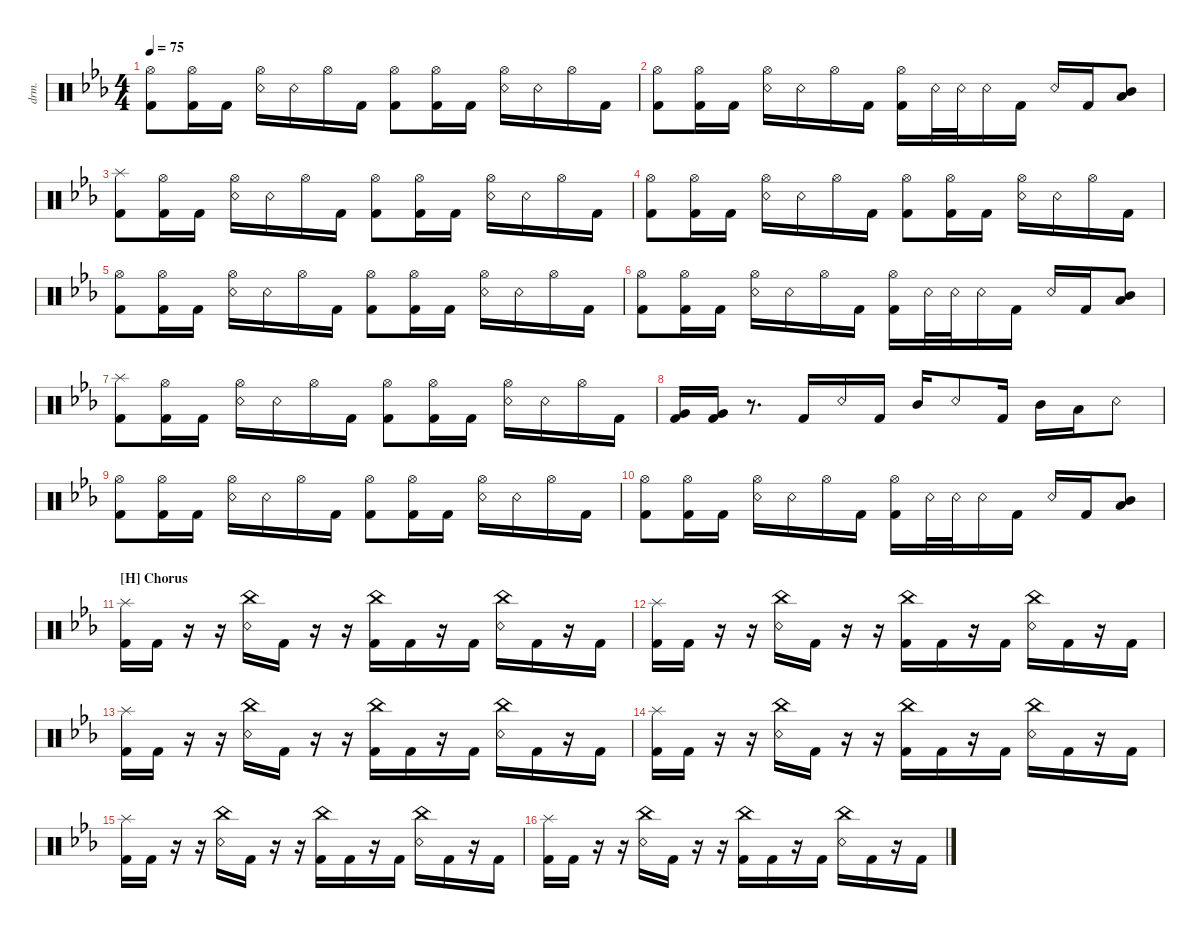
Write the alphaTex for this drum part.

\defaultSystemsLayout 4
\hideDynamics
\bracketExtendMode nobrackets
\otherSystemsTrackNameOrientation horizontal
\track ("Drumkit" "drm.") {instrument percussion}
\staff {score}
\articulation defaults
\ts (4 4)
\tempo 75
\clef neutral
\ks cminor
("Kick (hit) 2"{acc forcenatural} "Hi-Hat (open)"{acc forcenatural}).8{dy ff beam Down} ("Kick (hit) 2"{acc forcenatural} "Hi-Hat (open)"{acc forcenatural}).16{beam Down} "Kick (hit) 2"{acc forcenatural}.16{beam Down} ("Snare (rim shot)"{acc forcenatural} "Hi-Hat (open)"{acc forcenatural}).16{beam Down} "Snare (rim shot)"{acc forcenatural}.16{beam Down} "Hi-Hat (open)"{acc forcenatural}.16{beam Down} "Kick (hit) 2"{acc forcenatural}.16{beam Down} ("Kick (hit) 2"{acc forcenatural} "Hi-Hat (open)"{acc forcenatural}).8{beam Down} ("Kick (hit) 2"{acc forcenatural} "Hi-Hat (open)"{acc forcenatural}).16{beam Down} "Kick (hit) 2"{acc forcenatural}.16{beam Down} ("Snare (rim shot)"{acc forcenatural} "Hi-Hat (open)"{acc forcenatural}).16{beam Down} "Snare (rim shot)"{acc forcenatural}.16{beam Down} "Hi-Hat (open)"{acc forcenatural}.16{beam Down} "Kick (hit) 2"{acc forcenatural}.16{beam Down} |
("Kick (hit) 2"{acc forcenatural} "Hi-Hat (open)"{acc forcenatural}).8{beam Down} ("Kick (hit) 2"{acc forcenatural} "Hi-Hat (open)"{acc forcenatural}).16{beam Down} "Kick (hit) 2"{acc forcenatural}.16{beam Down} ("Snare (rim shot)"{acc forcenatural} "Hi-Hat (open)"{acc forcenatural}).16{beam Down} "Snare (rim shot)"{acc forcenatural}.16{beam Down} "Hi-Hat (open)"{acc forcenatural}.16{beam Down} "Kick (hit) 2"{acc forcenatural}.16{beam Down} ("Kick (hit) 2"{acc forcenatural} "Hi-Hat (open)"{acc forcenatural}).16{beam Down} "Snare (rim shot)"{acc forcenatural}.32{beam Down} "Snare (rim shot)"{acc forcenatural}.32{beam Down} "Snare (rim shot)"{acc forcenatural}.16{beam Down} "Kick (hit) 2"{acc forcenatural}.16{beam Down} "Snare (rim shot)"{acc forcenatural}.16{beam Up} "Kick (hit) 2"{acc forcenatural}.16{beam Up} ("Mid Tom (hit)"{acc forcenatural} "Low Tom (hit)"{acc forcenatural}).8{beam Up} |
("Splash (hit)"{acc forcenatural} "Kick (hit) 2"{acc forcenatural}).8{beam Down} ("Kick (hit) 2"{acc forcenatural} "Hi-Hat (open)"{acc forcenatural}).16{beam Down} "Kick (hit) 2"{acc forcenatural}.16{beam Down} ("Snare (rim shot)"{acc forcenatural} "Hi-Hat (open)"{acc forcenatural}).16{beam Down} "Snare (rim shot)"{acc forcenatural}.16{beam Down} "Hi-Hat (open)"{acc forcenatural}.16{beam Down} "Kick (hit) 2"{acc forcenatural}.16{beam Down} ("Kick (hit) 2"{acc forcenatural} "Hi-Hat (open)"{acc forcenatural}).8{beam Down} ("Kick (hit) 2"{acc forcenatural} "Hi-Hat (open)"{acc forcenatural}).16{beam Down} "Kick (hit) 2"{acc forcenatural}.16{beam Down} ("Snare (rim shot)"{acc forcenatural} "Hi-Hat (open)"{acc forcenatural}).16{beam Down} "Snare (rim shot)"{acc forcenatural}.16{beam Down} "Hi-Hat (open)"{acc forcenatural}.16{beam Down} "Kick (hit) 2"{acc forcenatural}.16{beam Down} |
("Kick (hit) 2"{acc forcenatural} "Hi-Hat (open)"{acc forcenatural}).8{beam Down} ("Kick (hit) 2"{acc forcenatural} "Hi-Hat (open)"{acc forcenatural}).16{beam Down} "Kick (hit) 2"{acc forcenatural}.16{beam Down} ("Snare (rim shot)"{acc forcenatural} "Hi-Hat (open)"{acc forcenatural}).16{beam Down} "Snare (rim shot)"{acc forcenatural}.16{beam Down} "Hi-Hat (open)"{acc forcenatural}.16{beam Down} "Kick (hit) 2"{acc forcenatural}.16{beam Down} ("Kick (hit) 2"{acc forcenatural} "Hi-Hat (open)"{acc forcenatural}).8{beam Down} ("Kick (hit) 2"{acc forcenatural} "Hi-Hat (open)"{acc forcenatural}).16{beam Down} "Kick (hit) 2"{acc forcenatural}.16{beam Down} ("Snare (rim shot)"{acc forcenatural} "Hi-Hat (open)"{acc forcenatural}).16{beam Down} "Snare (rim shot)"{acc forcenatural}.16{beam Down} "Hi-Hat (open)"{acc forcenatural}.16{beam Down} "Kick (hit) 2"{acc forcenatural}.16{beam Down} |
("Kick (hit) 2"{acc forcenatural} "Hi-Hat (open)"{acc forcenatural}).8{beam Down} ("Kick (hit) 2"{acc forcenatural} "Hi-Hat (open)"{acc forcenatural}).16{beam Down} "Kick (hit) 2"{acc forcenatural}.16{beam Down} ("Snare (rim shot)"{acc forcenatural} "Hi-Hat (open)"{acc forcenatural}).16{beam Down} "Snare (rim shot)"{acc forcenatural}.16{beam Down} "Hi-Hat (open)"{acc forcenatural}.16{beam Down} "Kick (hit) 2"{acc forcenatural}.16{beam Down} ("Kick (hit) 2"{acc forcenatural} "Hi-Hat (open)"{acc forcenatural}).8{beam Down} ("Kick (hit) 2"{acc forcenatural} "Hi-Hat (open)"{acc forcenatural}).16{beam Down} "Kick (hit) 2"{acc forcenatural}.16{beam Down} ("Snare (rim shot)"{acc forcenatural} "Hi-Hat (open)"{acc forcenatural}).16{beam Down} "Snare (rim shot)"{acc forcenatural}.16{beam Down} "Hi-Hat (open)"{acc forcenatural}.16{beam Down} "Kick (hit) 2"{acc forcenatural}.16{beam Down} |
("Kick (hit) 2"{acc forcenatural} "Hi-Hat (open)"{acc forcenatural}).8{beam Down} ("Kick (hit) 2"{acc forcenatural} "Hi-Hat (open)"{acc forcenatural}).16{beam Down} "Kick (hit) 2"{acc forcenatural}.16{beam Down} ("Snare (rim shot)"{acc forcenatural} "Hi-Hat (open)"{acc forcenatural}).16{beam Down} "Snare (rim shot)"{acc forcenatural}.16{beam Down} "Hi-Hat (open)"{acc forcenatural}.16{beam Down} "Kick (hit) 2"{acc forcenatural}.16{beam Down} ("Kick (hit) 2"{acc forcenatural} "Hi-Hat (open)"{acc forcenatural}).16{beam Down} "Snare (rim shot)"{acc forcenatural}.32{beam Down} "Snare (rim shot)"{acc forcenatural}.32{beam Down} "Snare (rim shot)"{acc forcenatural}.16{beam Down} "Kick (hit) 2"{acc forcenatural}.16{beam Down} "Snare (rim shot)"{acc forcenatural}.16{beam Up} "Kick (hit) 2"{acc forcenatural}.16{beam Up} ("Mid Tom (hit)"{acc forcenatural} "Low Tom (hit)"{acc forcenatural}).8{beam Up} |
("Splash (hit)"{acc forcenatural} "Kick (hit) 2"{acc forcenatural}).8{beam Down} ("Kick (hit) 2"{acc forcenatural} "Hi-Hat (open)"{acc forcenatural}).16{beam Down} "Kick (hit) 2"{acc forcenatural}.16{beam Down} ("Snare (rim shot)"{acc forcenatural} "Hi-Hat (open)"{acc forcenatural}).16{beam Down} "Snare (rim shot)"{acc forcenatural}.16{beam Down} "Hi-Hat (open)"{acc forcenatural}.16{beam Down} "Kick (hit) 2"{acc forcenatural}.16{beam Down} ("Kick (hit) 2"{acc forcenatural} "Hi-Hat (open)"{acc forcenatural}).8{beam Down} ("Kick (hit) 2"{acc forcenatural} "Hi-Hat (open)"{acc forcenatural}).16{beam Down} "Kick (hit) 2"{acc forcenatural}.16{beam Down} ("Snare (rim shot)"{acc forcenatural} "Hi-Hat (open)"{acc forcenatural}).16{beam Down} "Snare (rim shot)"{acc forcenatural}.16{beam Down} "Hi-Hat (open)"{acc forcenatural}.16{beam Down} "Kick (hit) 2"{acc forcenatural}.16{beam Down} |
("Kick (hit) 2"{acc forcenatural} "Very Low Tom (hit)"{acc forcenatural}).16{beam Up} ("Kick (hit) 2"{acc forcenatural} "Very Low Tom (hit)"{acc forcenatural}).16{beam Up} r.8{d beam Up} "Kick (hit) 2"{acc forcenatural}.16{beam Up} "Snare (rim shot)"{acc forcenatural}.16{beam Up} "Kick (hit) 2"{acc forcenatural}.16{beam Up} "Mid Tom (hit)"{acc forcenatural}.16{beam Up} "Snare (rim shot)"{acc forcenatural}.8{beam Up} "Kick (hit) 2"{acc forcenatural}.16{beam Up} "Mid Tom (hit)"{acc forcenatural}.16{beam Down} "Low Tom (hit)"{acc forcenatural}.16{beam Down} "Snare (rim shot)"{acc forcenatural}.8{beam Down} |
("Kick (hit) 2"{acc forcenatural} "Hi-Hat (open)"{acc forcenatural}).8{beam Down} ("Kick (hit) 2"{acc forcenatural} "Hi-Hat (open)"{acc forcenatural}).16{beam Down} "Kick (hit) 2"{acc forcenatural}.16{beam Down} ("Snare (rim shot)"{acc forcenatural} "Hi-Hat (open)"{acc forcenatural}).16{beam Down} "Snare (rim shot)"{acc forcenatural}.16{beam Down} "Hi-Hat (open)"{acc forcenatural}.16{beam Down} "Kick (hit) 2"{acc forcenatural}.16{beam Down} ("Kick (hit) 2"{acc forcenatural} "Hi-Hat (open)"{acc forcenatural}).8{beam Down} ("Kick (hit) 2"{acc forcenatural} "Hi-Hat (open)"{acc forcenatural}).16{beam Down} "Kick (hit) 2"{acc forcenatural}.16{beam Down} ("Snare (rim shot)"{acc forcenatural} "Hi-Hat (open)"{acc forcenatural}).16{beam Down} "Snare (rim shot)"{acc forcenatural}.16{beam Down} "Hi-Hat (open)"{acc forcenatural}.16{beam Down} "Kick (hit) 2"{acc forcenatural}.16{beam Down} |
("Kick (hit) 2"{acc forcenatural} "Hi-Hat (open)"{acc forcenatural}).8{beam Down} ("Kick (hit) 2"{acc forcenatural} "Hi-Hat (open)"{acc forcenatural}).16{beam Down} "Kick (hit) 2"{acc forcenatural}.16{beam Down} ("Snare (rim shot)"{acc forcenatural} "Hi-Hat (open)"{acc forcenatural}).16{beam Down} "Snare (rim shot)"{acc forcenatural}.16{beam Down} "Hi-Hat (open)"{acc forcenatural}.16{beam Down} "Kick (hit) 2"{acc forcenatural}.16{beam Down} ("Kick (hit) 2"{acc forcenatural} "Hi-Hat (open)"{acc forcenatural}).16{beam Down} "Snare (rim shot)"{acc forcenatural}.32{beam Down} "Snare (rim shot)"{acc forcenatural}.32{beam Down} "Snare (rim shot)"{acc forcenatural}.16{beam Down} "Kick (hit) 2"{acc forcenatural}.16{beam Down} "Snare (rim shot)"{acc forcenatural}.16{beam Up} "Kick (hit) 2"{acc forcenatural}.16{beam Up} ("Mid Tom (hit)"{acc forcenatural} "Low Tom (hit)"{acc forcenatural}).8{beam Up} |
\section ("H" "Chorus")
("Kick (hit) 2"{acc forcenatural} "Splash (hit)"{acc forcenatural}).16{beam Down} "Kick (hit) 2"{acc forcenatural}.16{beam Down} r.16{beam Down} r.16{beam Down} ("China (hit)"{acc forcenatural} "Snare (rim shot)"{acc forcenatural}).16{beam Down} "Kick (hit) 2"{acc forcenatural}.16{beam Down} r.16{beam Down} r.16{beam Down} ("China (hit)"{acc forcenatural} "Kick (hit) 2"{acc forcenatural}).16{beam Down} "Kick (hit) 2"{acc forcenatural}.16{beam Down} r.16{beam Down} "Kick (hit) 2"{acc forcenatural}.16{beam Down} ("China (hit)"{acc forcenatural} "Snare (rim shot)"{acc forcenatural}).16{beam Down} "Kick (hit) 2"{acc forcenatural}.16{beam Down} r.16{beam Down} "Kick (hit) 2"{acc forcenatural}.16{beam Down} |
("Kick (hit) 2"{acc forcenatural} "Splash (hit)"{acc forcenatural}).16{beam Down} "Kick (hit) 2"{acc forcenatural}.16{beam Down} r.16{beam Down} r.16{beam Down} ("China (hit)"{acc forcenatural} "Snare (rim shot)"{acc forcenatural}).16{beam Down} "Kick (hit) 2"{acc forcenatural}.16{beam Down} r.16{beam Down} r.16{beam Down} ("China (hit)"{acc forcenatural} "Kick (hit) 2"{acc forcenatural}).16{beam Down} "Kick (hit) 2"{acc forcenatural}.16{beam Down} r.16{beam Down} "Kick (hit) 2"{acc forcenatural}.16{beam Down} ("China (hit)"{acc forcenatural} "Snare (rim shot)"{acc forcenatural}).16{beam Down} "Kick (hit) 2"{acc forcenatural}.16{beam Down} r.16{beam Down} "Kick (hit) 2"{acc forcenatural}.16{beam Down} |
("Kick (hit) 2"{acc forcenatural} "Splash (hit)"{acc forcenatural}).16{beam Down} "Kick (hit) 2"{acc forcenatural}.16{beam Down} r.16{beam Down} r.16{beam Down} ("China (hit)"{acc forcenatural} "Snare (rim shot)"{acc forcenatural}).16{beam Down} "Kick (hit) 2"{acc forcenatural}.16{beam Down} r.16{beam Down} r.16{beam Down} ("China (hit)"{acc forcenatural} "Kick (hit) 2"{acc forcenatural}).16{beam Down} "Kick (hit) 2"{acc forcenatural}.16{beam Down} r.16{beam Down} "Kick (hit) 2"{acc forcenatural}.16{beam Down} ("China (hit)"{acc forcenatural} "Snare (rim shot)"{acc forcenatural}).16{beam Down} "Kick (hit) 2"{acc forcenatural}.16{beam Down} r.16{beam Down} "Kick (hit) 2"{acc forcenatural}.16{beam Down} |
("Kick (hit) 2"{acc forcenatural} "Splash (hit)"{acc forcenatural}).16{beam Down} "Kick (hit) 2"{acc forcenatural}.16{beam Down} r.16{beam Down} r.16{beam Down} ("China (hit)"{acc forcenatural} "Snare (rim shot)"{acc forcenatural}).16{beam Down} "Kick (hit) 2"{acc forcenatural}.16{beam Down} r.16{beam Down} r.16{beam Down} ("China (hit)"{acc forcenatural} "Kick (hit) 2"{acc forcenatural}).16{beam Down} "Kick (hit) 2"{acc forcenatural}.16{beam Down} r.16{beam Down} "Kick (hit) 2"{acc forcenatural}.16{beam Down} ("China (hit)"{acc forcenatural} "Snare (rim shot)"{acc forcenatural}).16{beam Down} "Kick (hit) 2"{acc forcenatural}.16{beam Down} r.16{beam Down} "Kick (hit) 2"{acc forcenatural}.16{beam Down} |
("Kick (hit) 2"{acc forcenatural} "Splash (hit)"{acc forcenatural}).16{beam Down} "Kick (hit) 2"{acc forcenatural}.16{beam Down} r.16{beam Down} r.16{beam Down} ("China (hit)"{acc forcenatural} "Snare (rim shot)"{acc forcenatural}).16{beam Down} "Kick (hit) 2"{acc forcenatural}.16{beam Down} r.16{beam Down} r.16{beam Down} ("China (hit)"{acc forcenatural} "Kick (hit) 2"{acc forcenatural}).16{beam Down} "Kick (hit) 2"{acc forcenatural}.16{beam Down} r.16{beam Down} "Kick (hit) 2"{acc forcenatural}.16{beam Down} ("China (hit)"{acc forcenatural} "Snare (rim shot)"{acc forcenatural}).16{beam Down} "Kick (hit) 2"{acc forcenatural}.16{beam Down} r.16{beam Down} "Kick (hit) 2"{acc forcenatural}.16{beam Down} |
("Kick (hit) 2"{acc forcenatural} "Splash (hit)"{acc forcenatural}).16{beam Down} "Kick (hit) 2"{acc forcenatural}.16{beam Down} r.16{beam Down} r.16{beam Down} ("China (hit)"{acc forcenatural} "Snare (rim shot)"{acc forcenatural}).16{beam Down} "Kick (hit) 2"{acc forcenatural}.16{beam Down} r.16{beam Down} r.16{beam Down} ("China (hit)"{acc forcenatural} "Kick (hit) 2"{acc forcenatural}).16{beam Down} "Kick (hit) 2"{acc forcenatural}.16{beam Down} r.16{beam Down} "Kick (hit) 2"{acc forcenatural}.16{beam Down} ("China (hit)"{acc forcenatural} "Snare (rim shot)"{acc forcenatural}).16{beam Down} "Kick (hit) 2"{acc forcenatural}.16{beam Down} r.16{beam Down} "Kick (hit) 2"{acc forcenatural}.16{beam Down}
